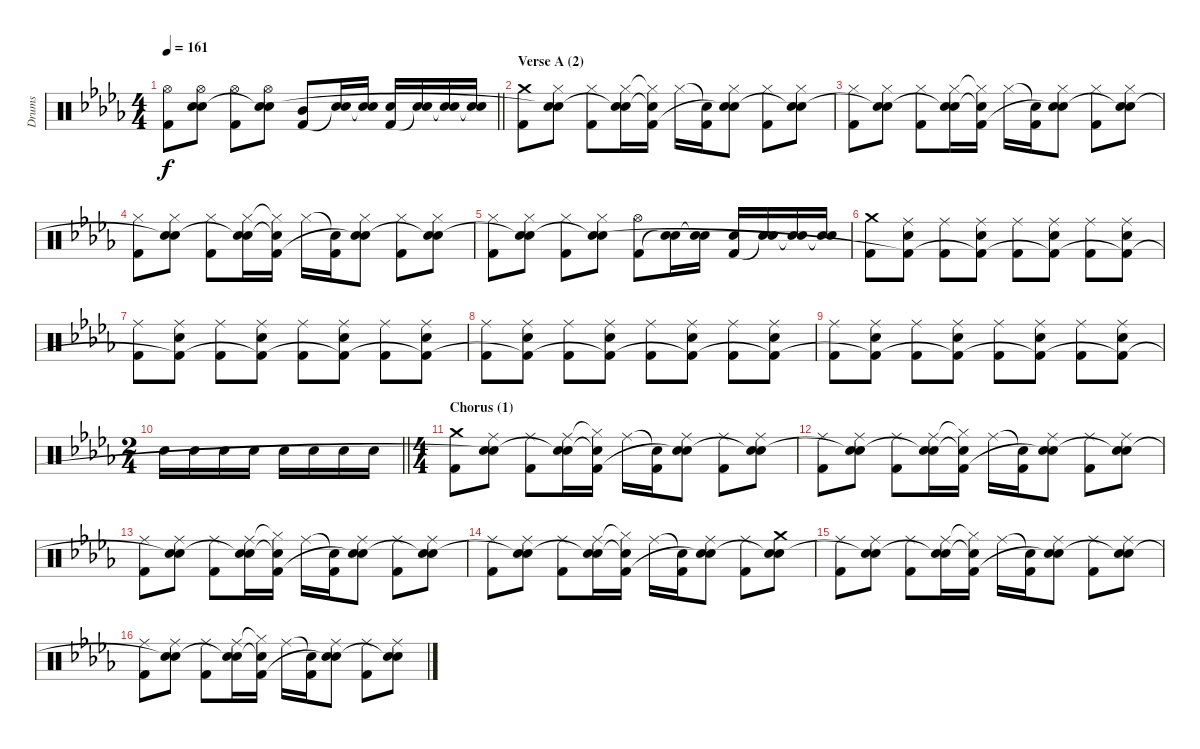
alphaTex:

\track ("Drums" "Drums") {instrument percussion}
\staff {score}
\articulation defaults
\ts (4 4)
\tempo 161
\clef neutral
\barLineRight lightlight
\ks bbminor
("Hi-Hat (open)" "Kick (hit) 2").8{dy f} ("Hi-Hat (open)" "Electric Snare (hit)" "Snare (hit)"{t}).8 ("Hi-Hat (open)" "Kick (hit) 2").8 ("Hi-Hat (open)" "Electric Snare (hit)" "Snare (hit)"{t}).8 ("Mid Tom (hit)" "Kick (hit) 2").8 ("Electric Snare (hit)" "Snare (hit)"{t}).16 ("Electric Snare (hit)" "Snare (hit)"{t}).16 ("Electric Snare (hit)" "Kick (hit) 2").16 ("Electric Snare (hit)" "Snare (hit)"{t}).16 ("Electric Snare (hit)" "Snare (hit)"{t}).16 ("Electric Snare (hit)" "Snare (hit)"{t}).16 |
\section ("" "Verse A (2)")
("Crash medium (hit)" "Kick (hit) 2").8 ("Hi-Hat (closed)" "Electric Snare (hit)" "Snare (hit)"{t}).8 ("Hi-Hat (closed)" "Kick (hit) 2").8 ("Hi-Hat (closed)" "Electric Snare (hit)" "Snare (hit)"{t}).16 ("Hi-Hat (closed)"{t} "Snare (hit)"{t} "Kick (hit) 2").16 "Hi-Hat (closed)".16 ("Snare (hit)"{t} "Kick (hit) 2").16 ("Hi-Hat (closed)" "Electric Snare (hit)" "Snare (hit)"{t}).8 ("Hi-Hat (closed)" "Kick (hit) 2").8 ("Hi-Hat (closed)" "Electric Snare (hit)" "Snare (hit)"{t}).8 |
("Hi-Hat (closed)" "Kick (hit) 2").8 ("Hi-Hat (closed)" "Electric Snare (hit)" "Snare (hit)"{t}).8 ("Hi-Hat (closed)" "Kick (hit) 2").8 ("Hi-Hat (closed)" "Electric Snare (hit)" "Snare (hit)"{t}).16 ("Hi-Hat (closed)"{t} "Snare (hit)"{t} "Kick (hit) 2").16 "Hi-Hat (closed)".16 ("Snare (hit)"{t} "Kick (hit) 2").16 ("Hi-Hat (closed)" "Electric Snare (hit)" "Snare (hit)"{t}).8 ("Hi-Hat (closed)" "Kick (hit) 2").8 ("Hi-Hat (closed)" "Electric Snare (hit)" "Snare (hit)"{t}).8 |
("Hi-Hat (closed)" "Kick (hit) 2").8 ("Hi-Hat (closed)" "Electric Snare (hit)" "Snare (hit)"{t}).8 ("Hi-Hat (closed)" "Kick (hit) 2").8 ("Hi-Hat (closed)" "Electric Snare (hit)" "Snare (hit)"{t}).16 ("Hi-Hat (closed)"{t} "Snare (hit)"{t} "Kick (hit) 2").16 "Hi-Hat (closed)".16 ("Snare (hit)"{t} "Kick (hit) 2").16 ("Hi-Hat (closed)" "Electric Snare (hit)" "Snare (hit)"{t}).8 ("Hi-Hat (closed)" "Kick (hit) 2").8 ("Hi-Hat (closed)" "Electric Snare (hit)" "Snare (hit)"{t}).8 |
("Hi-Hat (closed)" "Kick (hit) 2").8 ("Hi-Hat (closed)" "Electric Snare (hit)" "Snare (hit)"{t}).8 ("Hi-Hat (closed)" "Kick (hit) 2").8 ("Hi-Hat (closed)" "Electric Snare (hit)" "Snare (hit)"{t}).8 ("Hi-Hat (open)" "Kick (hit) 2").8 ("Electric Snare (hit)" "Snare (hit)"{t}).16 ("Electric Snare (hit)" "Snare (hit)"{t}).16 ("Electric Snare (hit)" "Kick (hit) 2").16 ("Electric Snare (hit)" "Snare (hit)"{t}).16 ("Electric Snare (hit)" "Snare (hit)"{t}).16 ("Electric Snare (hit)" "Snare (hit)"{t}).16 |
("Crash medium (hit)" "Kick (hit) 2").8 ("Ride (middle)" "Electric Snare (hit)" "Kick (hit) 2"{t}).8 ("Ride (middle)" "Kick (hit) 2").8 ("Ride (middle)" "Electric Snare (hit)" "Kick (hit) 2"{t}).8 ("Ride (middle)" "Kick (hit) 2").8 ("Ride (middle)" "Electric Snare (hit)" "Kick (hit) 2"{t}).8 ("Ride (middle)" "Kick (hit) 2").8 ("Ride (middle)" "Electric Snare (hit)" "Kick (hit) 2"{t}).8 |
("Ride (middle)" "Kick (hit) 2").8 ("Ride (middle)" "Electric Snare (hit)" "Kick (hit) 2"{t}).8 ("Ride (middle)" "Kick (hit) 2").8 ("Ride (middle)" "Electric Snare (hit)" "Kick (hit) 2"{t}).8 ("Ride (middle)" "Kick (hit) 2").8 ("Ride (middle)" "Electric Snare (hit)" "Kick (hit) 2"{t}).8 ("Ride (middle)" "Kick (hit) 2").8 ("Ride (middle)" "Electric Snare (hit)" "Kick (hit) 2"{t}).8 |
("Ride (middle)" "Kick (hit) 2").8 ("Ride (middle)" "Electric Snare (hit)" "Kick (hit) 2"{t}).8 ("Ride (middle)" "Kick (hit) 2").8 ("Ride (middle)" "Electric Snare (hit)" "Kick (hit) 2"{t}).8 ("Ride (middle)" "Kick (hit) 2").8 ("Ride (middle)" "Electric Snare (hit)" "Kick (hit) 2"{t}).8 ("Ride (middle)" "Kick (hit) 2").8 ("Ride (middle)" "Electric Snare (hit)" "Kick (hit) 2"{t}).8 |
("Ride (middle)" "Kick (hit) 2").8 ("Ride (middle)" "Electric Snare (hit)" "Kick (hit) 2"{t}).8 ("Ride (middle)" "Kick (hit) 2").8 ("Ride (middle)" "Electric Snare (hit)" "Kick (hit) 2"{t}).8 ("Ride (middle)" "Kick (hit) 2").8 ("Ride (middle)" "Electric Snare (hit)" "Kick (hit) 2"{t}).8 ("Ride (middle)" "Kick (hit) 2").8 ("Ride (middle)" "Electric Snare (hit)" "Kick (hit) 2"{t}).8 |
\ts (2 4)
\barLineRight lightlight "Electric Snare (hit)".16 "Electric Snare (hit)".16 "Electric Snare (hit)".16 "Electric Snare (hit)".16 "Electric Snare (hit)".16 "Electric Snare (hit)".16 "Electric Snare (hit)".16 "Electric Snare (hit)".16
|
\ts (4 4)
\section ("" "Chorus (1)")
("Crash medium (hit)" "Kick (hit) 2").8 ("Ride (middle)" "Electric Snare (hit)" "Snare (hit)"{t}).8 ("Ride (middle)" "Kick (hit) 2").8 ("Ride (middle)" "Electric Snare (hit)" "Snare (hit)"{t}).16 ("Hi-Hat (closed)"{t} "Snare (hit)"{t} "Kick (hit) 2").16 "Ride (middle)".16 ("Snare (hit)"{t} "Kick (hit) 2").16 ("Ride (middle)" "Electric Snare (hit)" "Snare (hit)"{t}).8 ("Ride (middle)" "Kick (hit) 2").8 ("Ride (middle)" "Electric Snare (hit)" "Snare (hit)"{t}).8 |
("Ride (middle)" "Kick (hit) 2").8 ("Ride (middle)" "Electric Snare (hit)" "Snare (hit)"{t}).8 ("Ride (middle)" "Kick (hit) 2").8 ("Ride (middle)" "Electric Snare (hit)" "Snare (hit)"{t}).16 ("Hi-Hat (closed)"{t} "Snare (hit)"{t} "Kick (hit) 2").16 "Ride (middle)".16 ("Snare (hit)"{t} "Kick (hit) 2").16 ("Ride (middle)" "Electric Snare (hit)" "Snare (hit)"{t}).8 ("Ride (middle)" "Kick (hit) 2").8 ("Ride (middle)" "Electric Snare (hit)" "Snare (hit)"{t}).8 |
("Ride (middle)" "Kick (hit) 2").8 ("Ride (middle)" "Electric Snare (hit)" "Snare (hit)"{t}).8 ("Ride (middle)" "Kick (hit) 2").8 ("Ride (middle)" "Electric Snare (hit)" "Snare (hit)"{t}).16 ("Hi-Hat (closed)"{t} "Snare (hit)"{t} "Kick (hit) 2").16 "Ride (middle)".16 ("Snare (hit)"{t} "Kick (hit) 2").16 ("Ride (middle)" "Electric Snare (hit)" "Snare (hit)"{t}).8 ("Ride (middle)" "Kick (hit) 2").8 ("Ride (middle)" "Electric Snare (hit)" "Snare (hit)"{t}).8 |
("Ride (middle)" "Kick (hit) 2").8 ("Ride (middle)" "Electric Snare (hit)" "Snare (hit)"{t}).8 ("Ride (middle)" "Kick (hit) 2").8 ("Ride (middle)" "Electric Snare (hit)" "Snare (hit)"{t}).16 ("Hi-Hat (closed)"{t} "Snare (hit)"{t} "Kick (hit) 2").16 "Ride (middle)".16 ("Snare (hit)"{t} "Kick (hit) 2").16 ("Ride (middle)" "Electric Snare (hit)" "Snare (hit)"{t}).8 ("Ride (middle)" "Kick (hit) 2").8 ("Crash medium (hit)" "Electric Snare (hit)" "Snare (hit)"{t}).8 |
("Ride (middle)" "Kick (hit) 2").8 ("Ride (middle)" "Electric Snare (hit)" "Snare (hit)"{t}).8 ("Ride (middle)" "Kick (hit) 2").8 ("Ride (middle)" "Electric Snare (hit)" "Snare (hit)"{t}).16 ("Hi-Hat (closed)"{t} "Snare (hit)"{t} "Kick (hit) 2").16 "Ride (middle)".16 ("Snare (hit)"{t} "Kick (hit) 2").16 ("Ride (middle)" "Electric Snare (hit)" "Snare (hit)"{t}).8 ("Ride (middle)" "Kick (hit) 2").8 ("Ride (middle)" "Electric Snare (hit)" "Snare (hit)"{t}).8 |
("Ride (middle)" "Kick (hit) 2").8 ("Ride (middle)" "Electric Snare (hit)" "Snare (hit)"{t}).8 ("Ride (middle)" "Kick (hit) 2").8 ("Ride (middle)" "Electric Snare (hit)" "Snare (hit)"{t}).16 ("Hi-Hat (closed)"{t} "Snare (hit)"{t} "Kick (hit) 2").16 "Ride (middle)".16 ("Snare (hit)"{t} "Kick (hit) 2").16 ("Ride (middle)" "Electric Snare (hit)" "Snare (hit)"{t}).8 ("Ride (middle)" "Kick (hit) 2").8 ("Ride (middle)" "Electric Snare (hit)" "Snare (hit)"{t}).8
